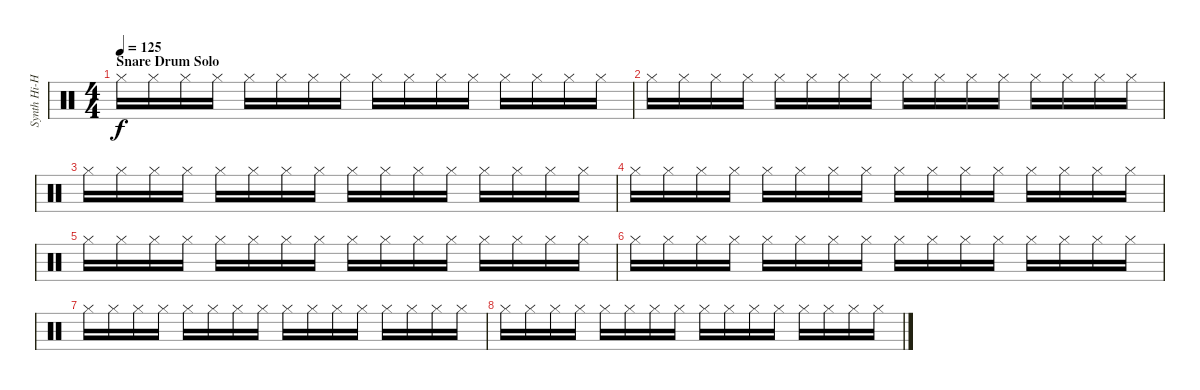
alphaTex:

\track ("Synth Hi-Hat (Gillian Gilbert)" "Synth Hi-H") {instrument percussion}
\staff {score}
\articulation defaults
\ts (4 4)
\section ("" "Snare Drum Solo")
\tempo 125
\clef neutral
\ks c "Hi-Hat (closed)".16{dy f} "Hi-Hat (closed)".16 "Hi-Hat (closed)".16 "Hi-Hat (closed)".16 "Hi-Hat (closed)".16 "Hi-Hat (closed)".16 "Hi-Hat (closed)".16 "Hi-Hat (closed)".16 "Hi-Hat (closed)".16 "Hi-Hat (closed)".16 "Hi-Hat (closed)".16 "Hi-Hat (closed)".16 "Hi-Hat (closed)".16 "Hi-Hat (closed)".16 "Hi-Hat (closed)".16 "Hi-Hat (closed)".16
|
"Hi-Hat (closed)".16 "Hi-Hat (closed)".16 "Hi-Hat (closed)".16 "Hi-Hat (closed)".16 "Hi-Hat (closed)".16 "Hi-Hat (closed)".16 "Hi-Hat (closed)".16 "Hi-Hat (closed)".16 "Hi-Hat (closed)".16 "Hi-Hat (closed)".16 "Hi-Hat (closed)".16 "Hi-Hat (closed)".16 "Hi-Hat (closed)".16 "Hi-Hat (closed)".16 "Hi-Hat (closed)".16 "Hi-Hat (closed)".16 |
"Hi-Hat (closed)".16 "Hi-Hat (closed)".16 "Hi-Hat (closed)".16 "Hi-Hat (closed)".16 "Hi-Hat (closed)".16 "Hi-Hat (closed)".16 "Hi-Hat (closed)".16 "Hi-Hat (closed)".16 "Hi-Hat (closed)".16 "Hi-Hat (closed)".16 "Hi-Hat (closed)".16 "Hi-Hat (closed)".16 "Hi-Hat (closed)".16 "Hi-Hat (closed)".16 "Hi-Hat (closed)".16 "Hi-Hat (closed)".16 |
"Hi-Hat (closed)".16 "Hi-Hat (closed)".16 "Hi-Hat (closed)".16 "Hi-Hat (closed)".16 "Hi-Hat (closed)".16 "Hi-Hat (closed)".16 "Hi-Hat (closed)".16 "Hi-Hat (closed)".16 "Hi-Hat (closed)".16 "Hi-Hat (closed)".16 "Hi-Hat (closed)".16 "Hi-Hat (closed)".16 "Hi-Hat (closed)".16 "Hi-Hat (closed)".16 "Hi-Hat (closed)".16 "Hi-Hat (closed)".16 |
"Hi-Hat (closed)".16 "Hi-Hat (closed)".16 "Hi-Hat (closed)".16 "Hi-Hat (closed)".16 "Hi-Hat (closed)".16 "Hi-Hat (closed)".16 "Hi-Hat (closed)".16 "Hi-Hat (closed)".16 "Hi-Hat (closed)".16 "Hi-Hat (closed)".16 "Hi-Hat (closed)".16 "Hi-Hat (closed)".16 "Hi-Hat (closed)".16 "Hi-Hat (closed)".16 "Hi-Hat (closed)".16 "Hi-Hat (closed)".16 |
"Hi-Hat (closed)".16 "Hi-Hat (closed)".16 "Hi-Hat (closed)".16 "Hi-Hat (closed)".16 "Hi-Hat (closed)".16 "Hi-Hat (closed)".16 "Hi-Hat (closed)".16 "Hi-Hat (closed)".16 "Hi-Hat (closed)".16 "Hi-Hat (closed)".16 "Hi-Hat (closed)".16 "Hi-Hat (closed)".16 "Hi-Hat (closed)".16 "Hi-Hat (closed)".16 "Hi-Hat (closed)".16 "Hi-Hat (closed)".16 |
"Hi-Hat (closed)".16 "Hi-Hat (closed)".16 "Hi-Hat (closed)".16 "Hi-Hat (closed)".16 "Hi-Hat (closed)".16 "Hi-Hat (closed)".16 "Hi-Hat (closed)".16 "Hi-Hat (closed)".16 "Hi-Hat (closed)".16 "Hi-Hat (closed)".16 "Hi-Hat (closed)".16 "Hi-Hat (closed)".16 "Hi-Hat (closed)".16 "Hi-Hat (closed)".16 "Hi-Hat (closed)".16 "Hi-Hat (closed)".16 |
"Hi-Hat (closed)".16 "Hi-Hat (closed)".16 "Hi-Hat (closed)".16 "Hi-Hat (closed)".16 "Hi-Hat (closed)".16 "Hi-Hat (closed)".16 "Hi-Hat (closed)".16 "Hi-Hat (closed)".16 "Hi-Hat (closed)".16 "Hi-Hat (closed)".16 "Hi-Hat (closed)".16 "Hi-Hat (closed)".16 "Hi-Hat (closed)".16 "Hi-Hat (closed)".16 "Hi-Hat (closed)".16 "Hi-Hat (closed)".16
